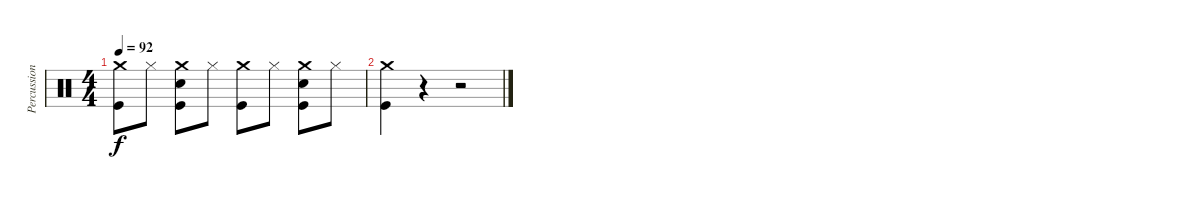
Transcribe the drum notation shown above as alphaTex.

\track ("Percussion" "Percussion") {instrument percussion}
\staff {score}
\articulation defaults
\ts (4 4)
\tempo 92
\clef neutral
\ks c
("Crash medium (hit)" "Kick (hit)").8{dy f} "Hi-Hat (closed)".8 ("Crash medium (hit)" "Snare (hit) 2" "Kick (hit)").8 "Hi-Hat (closed)".8 ("Crash medium (hit)" "Kick (hit)").8 "Hi-Hat (closed)".8 ("Crash medium (hit)" "Snare (hit) 2" "Kick (hit)").8 "Hi-Hat (closed)".8 |
("Crash medium (hit)" "Kick (hit)").4 r.4 r.2
